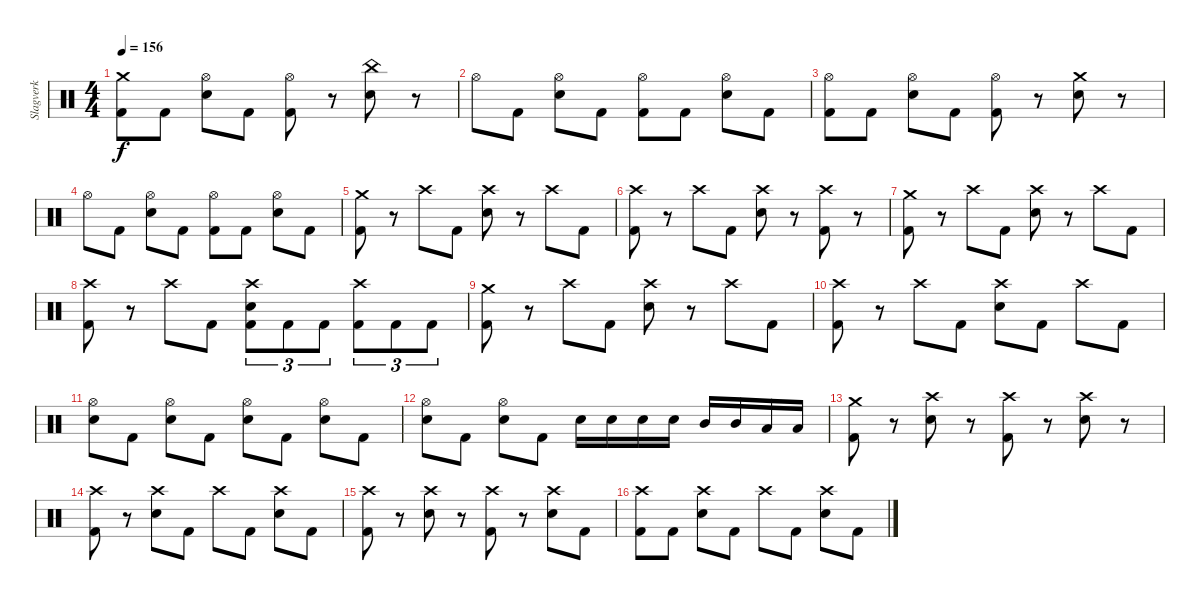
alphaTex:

\track ("Slagverk" "Slagverk") {instrument percussion}
\staff {score}
\articulation defaults
\ts (4 4)
\tempo 156
\clef neutral
\ks c
("Crash medium (hit)" "Kick (hit) 2").8{dy f} "Kick (hit) 2".8 ("Hi-Hat (open)" "Snare (hit) 2").8 "Kick (hit) 2".8 ("Hi-Hat (open)" "Kick (hit) 2").8 r.8 ("China (hit)" "Snare (hit) 2").8 r.8 |
"Hi-Hat (open)".8 "Kick (hit) 2".8 ("Hi-Hat (open)" "Snare (hit) 2").8 "Kick (hit) 2".8 ("Hi-Hat (open)" "Kick (hit) 2").8 "Kick (hit) 2".8 ("Hi-Hat (open)" "Snare (hit) 2").8 "Kick (hit) 2".8 |
("Hi-Hat (open)" "Kick (hit) 2").8 "Kick (hit) 2".8 ("Hi-Hat (open)" "Snare (hit) 2").8 "Kick (hit) 2".8 ("Hi-Hat (open)" "Kick (hit) 2").8 r.8 ("Crash medium (hit)" "Snare (hit) 2").8 r.8 |
"Hi-Hat (open)".8 "Kick (hit) 2".8 ("Hi-Hat (open)" "Snare (hit) 2").8 "Kick (hit) 2".8 ("Hi-Hat (open)" "Kick (hit) 2").8 "Kick (hit) 2".8 ("Hi-Hat (open)" "Snare (hit) 2").8 "Kick (hit) 2".8 |
("Crash medium (hit)" "Kick (hit) 2").8 r.8 "Crash high (hit)".8 "Kick (hit) 2".8 ("Crash high (hit)" "Snare (hit) 2").8 r.8 "Crash high (hit)".8 "Kick (hit) 2".8 |
("Crash high (hit)" "Kick (hit) 2").8 r.8 "Crash high (hit)".8 "Kick (hit) 2".8 ("Crash high (hit)" "Snare (hit) 2").8 r.8 ("Crash high (hit)" "Kick (hit) 2").8 r.8 |
("Crash medium (hit)" "Kick (hit) 2").8 r.8 "Crash high (hit)".8 "Kick (hit) 2".8 ("Crash high (hit)" "Snare (hit) 2").8 r.8 "Crash high (hit)".8 "Kick (hit) 2".8 |
("Crash high (hit)" "Kick (hit) 2").8 r.8 "Crash high (hit)".8 "Kick (hit) 2".8 ("Crash high (hit)" "Snare (hit) 2" "Kick (hit) 2").8{tu (3 2)} "Kick (hit) 2".8{tu (3 2)} "Kick (hit) 2".8{tu (3 2)} ("Crash high (hit)" "Kick (hit) 2").8{tu (3 2)} "Kick (hit) 2".8{tu (3 2)} "Kick (hit) 2".8{tu (3 2)} |
("Crash medium (hit)" "Kick (hit) 2").8 r.8 "Crash high (hit)".8 "Kick (hit) 2".8 ("Crash high (hit)" "Snare (hit) 2").8 r.8 "Crash high (hit)".8 "Kick (hit) 2".8 |
("Crash high (hit)" "Kick (hit) 2").8 r.8 "Crash high (hit)".8 "Kick (hit) 2".8 ("Crash high (hit)" "Snare (hit) 2").8 "Kick (hit) 2".8 "Crash high (hit)".8 "Kick (hit) 2".8 |
("Hi-Hat (open)" "Snare (hit) 2").8 "Kick (hit) 2".8 ("Hi-Hat (open)" "Snare (hit) 2").8 "Kick (hit) 2".8 ("Hi-Hat (open)" "Snare (hit) 2").8 "Kick (hit) 2".8 ("Hi-Hat (open)" "Snare (hit) 2").8 "Kick (hit) 2".8 |
("Hi-Hat (open)" "Snare (hit) 2").8 "Kick (hit) 2".8 ("Hi-Hat (open)" "Snare (hit) 2").8 "Kick (hit) 2".8 "Snare (hit) 2".16 "Snare (hit) 2".16 "Snare (hit) 2".16 "Snare (hit) 2".16 "Mid Tom (hit)".16 "Mid Tom (hit)".16 "Low Tom (hit)".16 "Low Tom (hit)".16 |
("Crash medium (hit)" "Kick (hit) 2").8 r.8 ("Crash high (hit)" "Snare (hit) 2").8 r.8 ("Crash high (hit)" "Kick (hit) 2").8 r.8 ("Crash high (hit)" "Snare (hit) 2").8 r.8 |
("Crash high (hit)" "Kick (hit) 2").8 r.8 ("Crash high (hit)" "Snare (hit) 2").8 "Kick (hit) 2".8 "Crash high (hit)".8 "Kick (hit) 2".8 ("Crash high (hit)" "Snare (hit) 2").8 "Kick (hit) 2".8 |
("Crash high (hit)" "Kick (hit) 2").8 r.8 ("Crash high (hit)" "Snare (hit) 2").8 r.8 ("Crash high (hit)" "Kick (hit) 2").8 r.8 ("Crash high (hit)" "Snare (hit) 2").8 "Kick (hit) 2".8 |
("Crash high (hit)" "Kick (hit) 2").8 "Kick (hit) 2".8 ("Crash high (hit)" "Snare (hit) 2").8 "Kick (hit) 2".8 "Crash high (hit)".8 "Kick (hit) 2".8 ("Crash high (hit)" "Snare (hit) 2").8 "Kick (hit) 2".8
